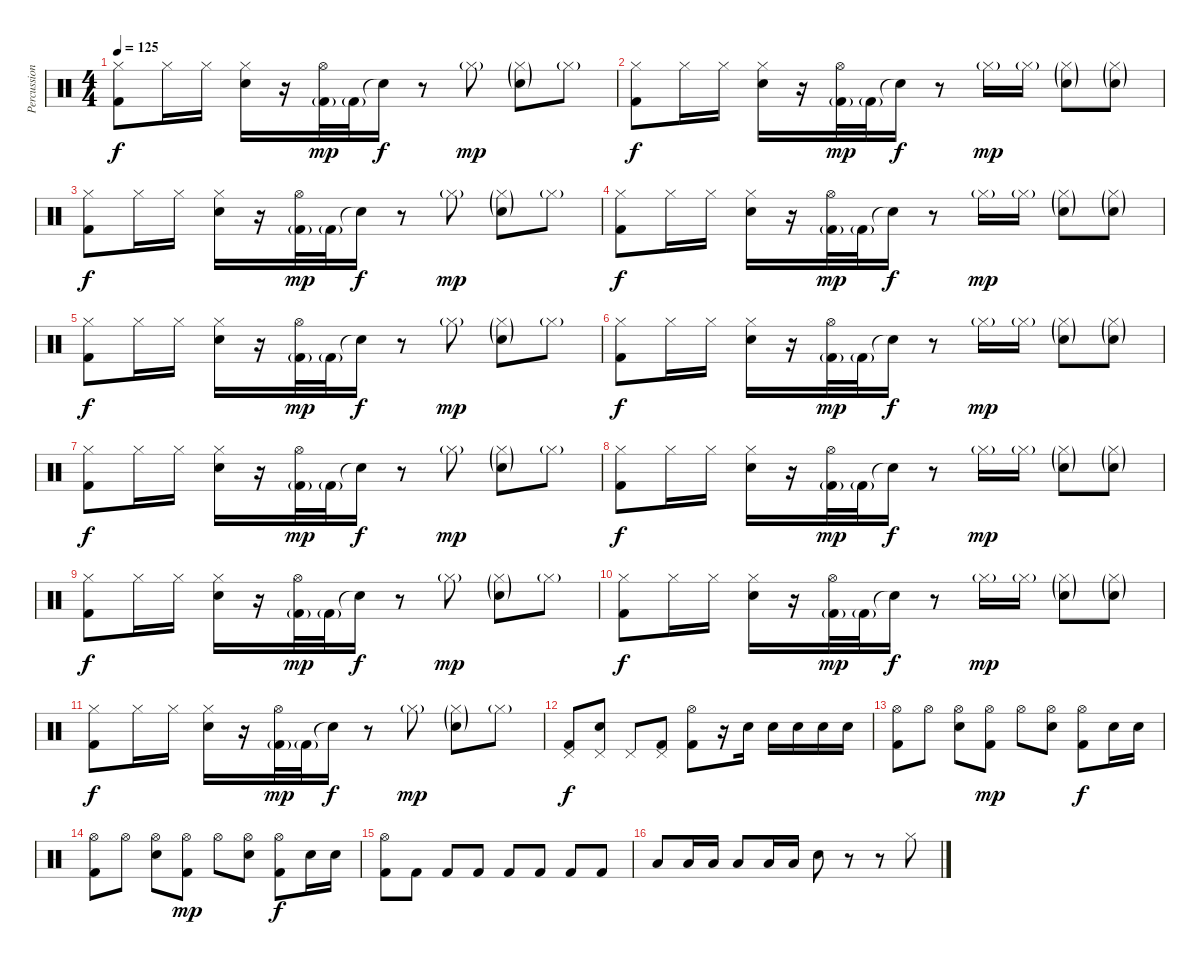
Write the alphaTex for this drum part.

\track ("Percussion" "Percussion") {instrument percussion}
\staff {score}
\articulation defaults
\ts (4 4)
\tempo 125
\clef neutral
\ks c
("Hi-Hat (closed)" "Kick (hit) 2").8{dy f} "Hi-Hat (closed)".16 "Hi-Hat (closed)".16 ("Hi-Hat (closed)" "Snare (hit) 2").16 r.16 ("Hi-Hat (open)" "Kick (hit) 2"{g}).32{dy mp} "Kick (hit) 2"{g}.32 "Snare (hit)"{t}.16{dy f} r.8 "Hi-Hat (closed)"{g}.8{dy mp} ("Hi-Hat (closed)"{g} "Snare (hit) 2"{g}).8 "Hi-Hat (closed)"{g}.8 |
("Hi-Hat (closed)" "Kick (hit) 2").8{dy f} "Hi-Hat (closed)".16 "Hi-Hat (closed)".16 ("Hi-Hat (closed)" "Snare (hit) 2").16 r.16 ("Hi-Hat (open)" "Kick (hit) 2"{g}).32{dy mp} "Kick (hit) 2"{g}.32 "Snare (hit)"{t}.16{dy f} r.8 "Hi-Hat (closed)"{g}.16{dy mp} "Hi-Hat (closed)"{g}.16 ("Hi-Hat (closed)"{g} "Snare (hit) 2"{g}).8 ("Hi-Hat (closed)"{g} "Snare (hit) 2"{g}).8 |
("Hi-Hat (closed)" "Kick (hit) 2").8{dy f} "Hi-Hat (closed)".16 "Hi-Hat (closed)".16 ("Hi-Hat (closed)" "Snare (hit) 2").16 r.16 ("Hi-Hat (open)" "Kick (hit) 2"{g}).32{dy mp} "Kick (hit) 2"{g}.32 "Snare (hit)"{t}.16{dy f} r.8 "Hi-Hat (closed)"{g}.8{dy mp} ("Hi-Hat (closed)"{g} "Snare (hit) 2"{g}).8 "Hi-Hat (closed)"{g}.8 |
("Hi-Hat (closed)" "Kick (hit) 2").8{dy f} "Hi-Hat (closed)".16 "Hi-Hat (closed)".16 ("Hi-Hat (closed)" "Snare (hit) 2").16 r.16 ("Hi-Hat (open)" "Kick (hit) 2"{g}).32{dy mp} "Kick (hit) 2"{g}.32 "Snare (hit)"{t}.16{dy f} r.8 "Hi-Hat (closed)"{g}.16{dy mp} "Hi-Hat (closed)"{g}.16 ("Hi-Hat (closed)"{g} "Snare (hit) 2"{g}).8 ("Hi-Hat (closed)"{g} "Snare (hit) 2"{g}).8 |
("Hi-Hat (closed)" "Kick (hit) 2").8{dy f} "Hi-Hat (closed)".16 "Hi-Hat (closed)".16 ("Hi-Hat (closed)" "Snare (hit) 2").16 r.16 ("Hi-Hat (open)" "Kick (hit) 2"{g}).32{dy mp} "Kick (hit) 2"{g}.32 "Snare (hit)"{t}.16{dy f} r.8 "Hi-Hat (closed)"{g}.8{dy mp} ("Hi-Hat (closed)"{g} "Snare (hit) 2"{g}).8 "Hi-Hat (closed)"{g}.8 |
("Hi-Hat (closed)" "Kick (hit) 2").8{dy f} "Hi-Hat (closed)".16 "Hi-Hat (closed)".16 ("Hi-Hat (closed)" "Snare (hit) 2").16 r.16 ("Hi-Hat (open)" "Kick (hit) 2"{g}).32{dy mp} "Kick (hit) 2"{g}.32 "Snare (hit)"{t}.16{dy f} r.8 "Hi-Hat (closed)"{g}.16{dy mp} "Hi-Hat (closed)"{g}.16 ("Hi-Hat (closed)"{g} "Snare (hit) 2"{g}).8 ("Hi-Hat (closed)"{g} "Snare (hit) 2"{g}).8 |
("Hi-Hat (closed)" "Kick (hit) 2").8{dy f} "Hi-Hat (closed)".16 "Hi-Hat (closed)".16 ("Hi-Hat (closed)" "Snare (hit) 2").16 r.16 ("Hi-Hat (open)" "Kick (hit) 2"{g}).32{dy mp} "Kick (hit) 2"{g}.32 "Snare (hit)"{t}.16{dy f} r.8 "Hi-Hat (closed)"{g}.8{dy mp} ("Hi-Hat (closed)"{g} "Snare (hit) 2"{g}).8 "Hi-Hat (closed)"{g}.8 |
("Hi-Hat (closed)" "Kick (hit) 2").8{dy f} "Hi-Hat (closed)".16 "Hi-Hat (closed)".16 ("Hi-Hat (closed)" "Snare (hit) 2").16 r.16 ("Hi-Hat (open)" "Kick (hit) 2"{g}).32{dy mp} "Kick (hit) 2"{g}.32 "Snare (hit)"{t}.16{dy f} r.8 "Hi-Hat (closed)"{g}.16{dy mp} "Hi-Hat (closed)"{g}.16 ("Hi-Hat (closed)"{g} "Snare (hit) 2"{g}).8 ("Hi-Hat (closed)"{g} "Snare (hit) 2"{g}).8 |
("Hi-Hat (closed)" "Kick (hit) 2").8{dy f} "Hi-Hat (closed)".16 "Hi-Hat (closed)".16 ("Hi-Hat (closed)" "Snare (hit) 2").16 r.16 ("Hi-Hat (open)" "Kick (hit) 2"{g}).32{dy mp} "Kick (hit) 2"{g}.32 "Snare (hit)"{t}.16{dy f} r.8 "Hi-Hat (closed)"{g}.8{dy mp} ("Hi-Hat (closed)"{g} "Snare (hit) 2"{g}).8 "Hi-Hat (closed)"{g}.8 |
("Hi-Hat (closed)" "Kick (hit) 2").8{dy f} "Hi-Hat (closed)".16 "Hi-Hat (closed)".16 ("Hi-Hat (closed)" "Snare (hit) 2").16 r.16 ("Hi-Hat (open)" "Kick (hit) 2"{g}).32{dy mp} "Kick (hit) 2"{g}.32 "Snare (hit)"{t}.16{dy f} r.8 "Hi-Hat (closed)"{g}.16{dy mp} "Hi-Hat (closed)"{g}.16 ("Hi-Hat (closed)"{g} "Snare (hit) 2"{g}).8 ("Hi-Hat (closed)"{g} "Snare (hit) 2"{g}).8 |
("Hi-Hat (closed)" "Kick (hit) 2").8{dy f} "Hi-Hat (closed)".16 "Hi-Hat (closed)".16 ("Hi-Hat (closed)" "Snare (hit) 2").16 r.16 ("Hi-Hat (open)" "Kick (hit) 2"{g}).32{dy mp} "Kick (hit) 2"{g}.32 "Snare (hit)"{t}.16{dy f} r.8 "Hi-Hat (closed)"{g}.8{dy mp} ("Hi-Hat (closed)"{g} "Snare (hit) 2"{g}).8 "Hi-Hat (closed)"{g}.8 |
("Pedal Hi-Hat (hit)" "Kick (hit) 2").8{dy f} ("Pedal Hi-Hat (hit)" "Snare (hit) 2").8 "Pedal Hi-Hat (hit)".8 ("Pedal Hi-Hat (hit)" "Kick (hit) 2").8 ("Hi-Hat (open)" "Kick (hit) 2").8 r.16 "Snare (hit) 2".16 "Snare (hit) 2".16 "Snare (hit) 2".16 "Snare (hit) 2".16 "Snare (hit) 2".16 |
("Hi-Hat (open)" "Kick (hit) 2").8 "Hi-Hat (open)".8 ("Hi-Hat (open)" "Snare (hit) 2").8 ("Hi-Hat (open)" "Kick (hit) 2").8{dy mp} "Hi-Hat (open)".8 ("Hi-Hat (open)" "Snare (hit) 2").8 ("Hi-Hat (open)" "Kick (hit) 2").8{dy f} "Snare (hit) 2".16 "Snare (hit) 2".16 |
("Hi-Hat (open)" "Kick (hit) 2").8 "Hi-Hat (open)".8 ("Hi-Hat (open)" "Snare (hit) 2").8 ("Hi-Hat (open)" "Kick (hit) 2").8{dy mp} "Hi-Hat (open)".8 ("Hi-Hat (open)" "Snare (hit) 2").8 ("Hi-Hat (open)" "Kick (hit) 2").8{dy f} "Snare (hit) 2".16 "Snare (hit) 2".16 |
("Hi-Hat (open)" "Kick (hit) 2").8 "Kick (hit) 2".8 "Kick (hit) 2".8 "Kick (hit) 2".8 "Kick (hit) 2".8 "Kick (hit) 2".8 "Kick (hit) 2".8 "Kick (hit) 2".8 |
"Low Floor Tom (hit)".8 "Low Tom (hit)".16 "Low Tom (hit)".16 "Low Floor Tom (hit)".8 "Low Tom (hit)".16 "Low Tom (hit)".16 "Snare (hit) 2".8 r.8 r.8 "Hi-Hat (closed)".8
